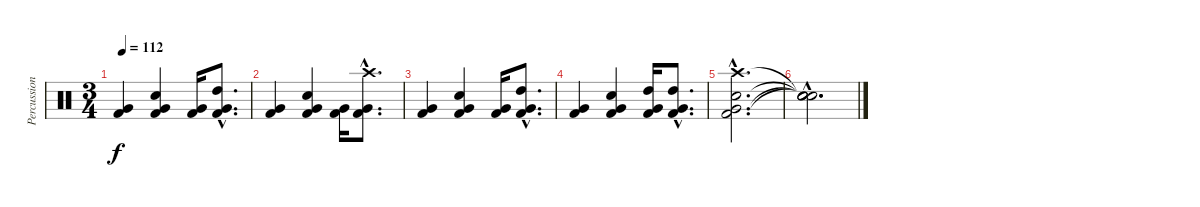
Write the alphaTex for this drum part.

\track ("Percussions" "Percussion") {instrument percussion}
\staff {score}
\articulation defaults
\ts (3 4)
\tempo 112
\clef neutral
\ks c
("Kick (hit) 2" "Very Low Tom (hit)").4{dy f} ("Kick (hit) 2" "Very Low Tom (hit)" "Electric Snare (hit)").4 ("Kick (hit) 2" "Very Low Tom (hit)").16 ("High Tom (hit)"{hac} "Kick (hit) 2"{hac} "Very Low Tom (hit)"{hac}).8{d} |
("Kick (hit) 2" "Very Low Tom (hit)").4 ("Kick (hit) 2" "Very Low Tom (hit)" "Electric Snare (hit)").4 ("Kick (hit) 2" "Very Low Tom (hit)").16 ("Crash high (hit)"{hac} "Kick (hit) 2"{hac} "Very Low Tom (hit)"{hac}).8{d} |
("Kick (hit) 2" "Very Low Tom (hit)").4 ("Kick (hit) 2" "Very Low Tom (hit)" "Electric Snare (hit)").4 ("Kick (hit) 2" "Very Low Tom (hit)").16 ("High Tom (hit)"{hac} "Kick (hit) 2"{hac} "Very Low Tom (hit)"{hac}).8{d} |
("Kick (hit) 2" "Very Low Tom (hit)").4 ("Kick (hit) 2" "Very Low Tom (hit)" "Electric Snare (hit)").4 ("High Tom (hit)" "Kick (hit) 2" "Very Low Tom (hit)").16 ("High Tom (hit)"{hac} "Kick (hit) 2"{hac} "Very Low Tom (hit)"{hac}).8{d} |
("Crash high (hit)"{hac} "Electric Snare (hit)"{hac} "Kick (hit) 2"{hac} "Very Low Tom (hit)"{hac}).2{d} |
("Snare (hit)"{hac t} "Snare (hit)"{hac t} "Snare (hit)"{hac t} "Snare (hit)"{hac t}).2{d}
